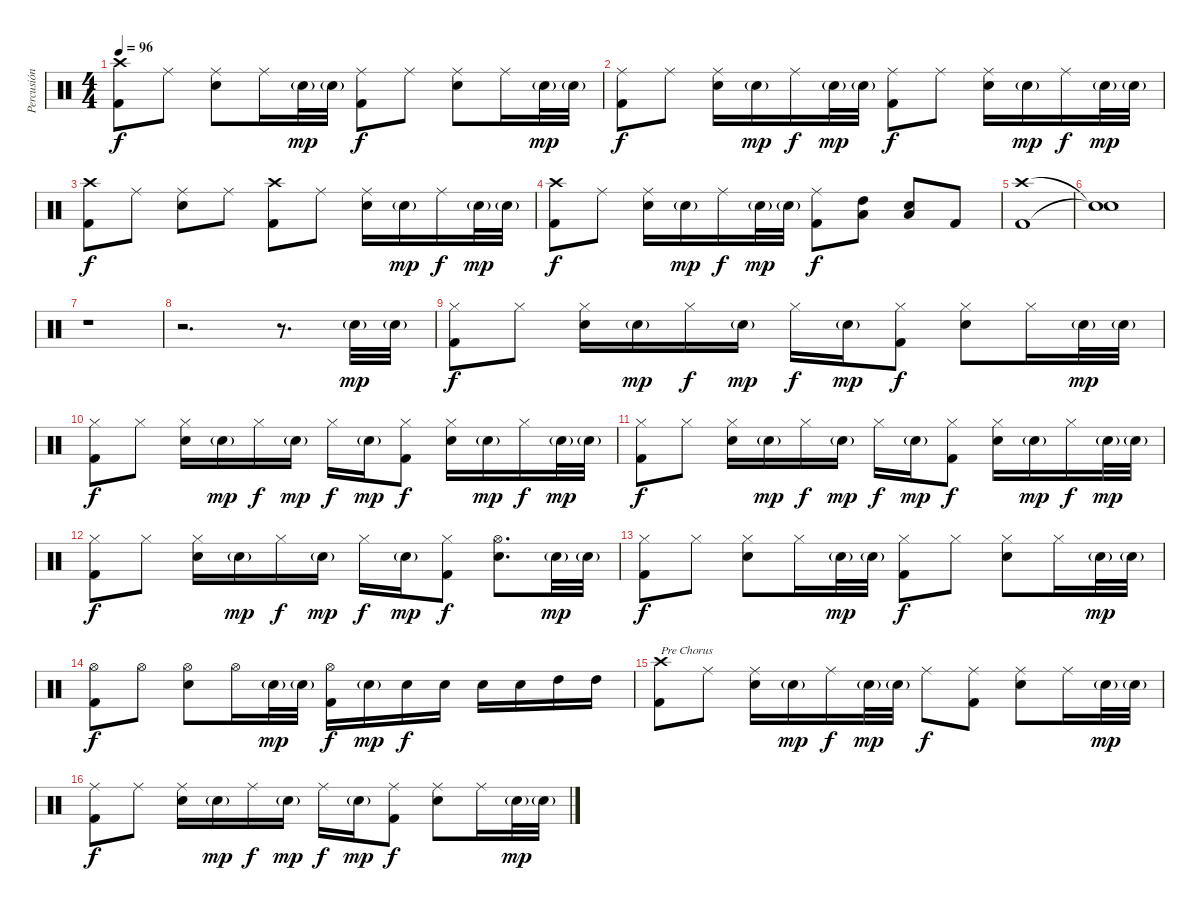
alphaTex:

\track ("Percusión" "Percusión") {instrument percussion}
\staff {score}
\articulation defaults
\ts (4 4)
\tempo 96
\clef neutral
\ks c
("Crash high (hit)" "Kick (hit) 2").8{dy f} "Ride (middle)".8 ("Ride (middle)" "Snare (hit) 2").8 "Ride (middle)".16 "Snare (hit) 2"{g}.32{dy mp} "Snare (hit) 2"{g}.32 ("Ride (middle)" "Kick (hit) 2").8{dy f} "Ride (middle)".8 ("Ride (middle)" "Snare (hit) 2").8 "Ride (middle)".16 "Snare (hit) 2"{g}.32{dy mp} "Snare (hit) 2"{g}.32 |
("Ride (middle)" "Kick (hit) 2").8{dy f} "Ride (middle)".8 ("Ride (middle)" "Snare (hit) 2").16 "Snare (hit) 2"{g}.16{dy mp} "Ride (middle)".16{dy f} "Snare (hit) 2"{g}.32{dy mp} "Snare (hit) 2"{g}.32 ("Ride (middle)" "Kick (hit) 2").8{dy f} "Ride (middle)".8 ("Ride (middle)" "Snare (hit) 2").16 "Snare (hit) 2"{g}.16{dy mp} "Ride (middle)".16{dy f} "Snare (hit) 2"{g}.32{dy mp} "Snare (hit) 2"{g}.32 |
("Crash high (hit)" "Kick (hit) 2").8{dy f} "Ride (middle)".8 ("Ride (middle)" "Snare (hit) 2").8 "Ride (middle)".8 ("Crash high (hit)" "Kick (hit) 2").8 "Ride (middle)".8 ("Ride (middle)" "Snare (hit) 2").16 "Snare (hit) 2"{g}.16{dy mp} "Ride (middle)".16{dy f} "Snare (hit) 2"{g}.32{dy mp} "Snare (hit) 2"{g}.32 |
("Crash high (hit)" "Kick (hit) 2").8{dy f} "Ride (middle)".8 ("Ride (middle)" "Snare (hit) 2").16 "Snare (hit) 2"{g}.16{dy mp} "Ride (middle)".16{dy f} "Snare (hit) 2"{g}.32{dy mp} "Snare (hit) 2"{g}.32 ("Ride (middle)" "Kick (hit) 2").8{dy f} ("Low Floor Tom (hit)" "High Tom (hit)").8 ("Low Floor Tom (hit)" "Snare (hit) 2").8 "Kick (hit) 2".8 |
("Crash high (hit)" "Kick (hit) 2").1 |
("Snare (hit)"{t} "Snare (hit)"{t}).1 |
r.1 |
r.2{d} r.8{d} "Snare (hit) 2"{g}.32{dy mp} "Snare (hit) 2"{g}.32 |
("Hi-Hat (closed)" "Kick (hit) 2").8{dy f} "Hi-Hat (closed)".8 ("Hi-Hat (closed)" "Snare (hit) 2").16 "Snare (hit) 2"{g}.16{dy mp} "Hi-Hat (closed)".16{dy f} "Snare (hit) 2"{g}.16{dy mp} "Hi-Hat (closed)".16{dy f} "Snare (hit) 2"{g}.16{dy mp} ("Hi-Hat (closed)" "Kick (hit) 2").8{dy f} ("Hi-Hat (closed)" "Snare (hit) 2").8 "Hi-Hat (closed)".16 "Snare (hit) 2"{g}.32{dy mp} "Snare (hit) 2"{g}.32 |
("Hi-Hat (closed)" "Kick (hit) 2").8{dy f} "Hi-Hat (closed)".8 ("Hi-Hat (closed)" "Snare (hit) 2").16 "Snare (hit) 2"{g}.16{dy mp} "Hi-Hat (closed)".16{dy f} "Snare (hit) 2"{g}.16{dy mp} "Hi-Hat (closed)".16{dy f} "Snare (hit) 2"{g}.16{dy mp} ("Hi-Hat (closed)" "Kick (hit) 2").8{dy f} ("Hi-Hat (closed)" "Snare (hit) 2").16 "Snare (hit) 2"{g}.16{dy mp} "Hi-Hat (closed)".16{dy f} "Snare (hit) 2"{g}.32{dy mp} "Snare (hit) 2"{g}.32 |
("Hi-Hat (closed)" "Kick (hit) 2").8{dy f} "Hi-Hat (closed)".8 ("Hi-Hat (closed)" "Snare (hit) 2").16 "Snare (hit) 2"{g}.16{dy mp} "Hi-Hat (closed)".16{dy f} "Snare (hit) 2"{g}.16{dy mp} "Hi-Hat (closed)".16{dy f} "Snare (hit) 2"{g}.16{dy mp} ("Hi-Hat (closed)" "Kick (hit) 2").8{dy f} ("Hi-Hat (closed)" "Snare (hit) 2").16 "Snare (hit) 2"{g}.16{dy mp} "Hi-Hat (closed)".16{dy f} "Snare (hit) 2"{g}.32{dy mp} "Snare (hit) 2"{g}.32 |
("Hi-Hat (closed)" "Kick (hit) 2").8{dy f} "Hi-Hat (closed)".8 ("Hi-Hat (closed)" "Snare (hit) 2").16 "Snare (hit) 2"{g}.16{dy mp} "Hi-Hat (closed)".16{dy f} "Snare (hit) 2"{g}.16{dy mp} "Hi-Hat (closed)".16{dy f} "Snare (hit) 2"{g}.16{dy mp} ("Hi-Hat (closed)" "Kick (hit) 2").8{dy f} ("Hi-Hat (open)" "Snare (hit) 2").8{d} "Snare (hit) 2"{g}.32{dy mp} "Snare (hit) 2"{g}.32 |
("Hi-Hat (closed)" "Kick (hit) 2").8{dy f} "Hi-Hat (closed)".8 ("Hi-Hat (closed)" "Snare (hit) 2").8 "Hi-Hat (closed)".16 "Snare (hit) 2"{g}.32{dy mp} "Snare (hit) 2"{g}.32 ("Hi-Hat (closed)" "Kick (hit) 2").8{dy f} "Hi-Hat (closed)".8 ("Hi-Hat (closed)" "Snare (hit) 2").8 "Hi-Hat (closed)".16 "Snare (hit) 2"{g}.32{dy mp} "Snare (hit) 2"{g}.32 |
("Hi-Hat (open)" "Kick (hit) 2").8{dy f} "Hi-Hat (open)".8 ("Hi-Hat (open)" "Snare (hit) 2").8 "Hi-Hat (open)".16 "Snare (hit) 2"{g}.32{dy mp} "Snare (hit) 2"{g}.32 ("Hi-Hat (open)" "Kick (hit) 2").16{dy f} "Snare (hit) 2"{g}.16{dy mp} "Snare (hit) 2".16{dy f} "Snare (hit) 2".16 "Snare (hit) 2".16 "Snare (hit) 2".16 "High Tom (hit)".16 "High Tom (hit)".16 |
("Crash high (hit)" "Kick (hit) 2").8{txt "Pre Chorus"} "Ride (middle)".8 ("Ride (middle)" "Snare (hit) 2").16 "Snare (hit) 2"{g}.16{dy mp} "Ride (middle)".16{dy f} "Snare (hit) 2"{g}.32{dy mp} "Snare (hit) 2"{g}.32 "Ride (middle)".8{dy f} ("Ride (middle)" "Kick (hit) 2").8 ("Ride (middle)" "Snare (hit) 2").8 "Ride (middle)".16 "Snare (hit) 2"{g}.32{dy mp} "Snare (hit) 2"{g}.32 |
("Ride (middle)" "Kick (hit) 2").8{dy f} "Ride (middle)".8 ("Ride (middle)" "Snare (hit) 2").16 "Snare (hit) 2"{g}.16{dy mp} "Ride (middle)".16{dy f} "Snare (hit) 2"{g}.16{dy mp} "Ride (middle)".16{dy f} "Snare (hit) 2"{g}.16{dy mp} ("Ride (middle)" "Kick (hit) 2").8{dy f} ("Ride (middle)" "Snare (hit) 2").8 "Ride (middle)".16 "Snare (hit) 2"{g}.32{dy mp} "Snare (hit) 2"{g}.32
